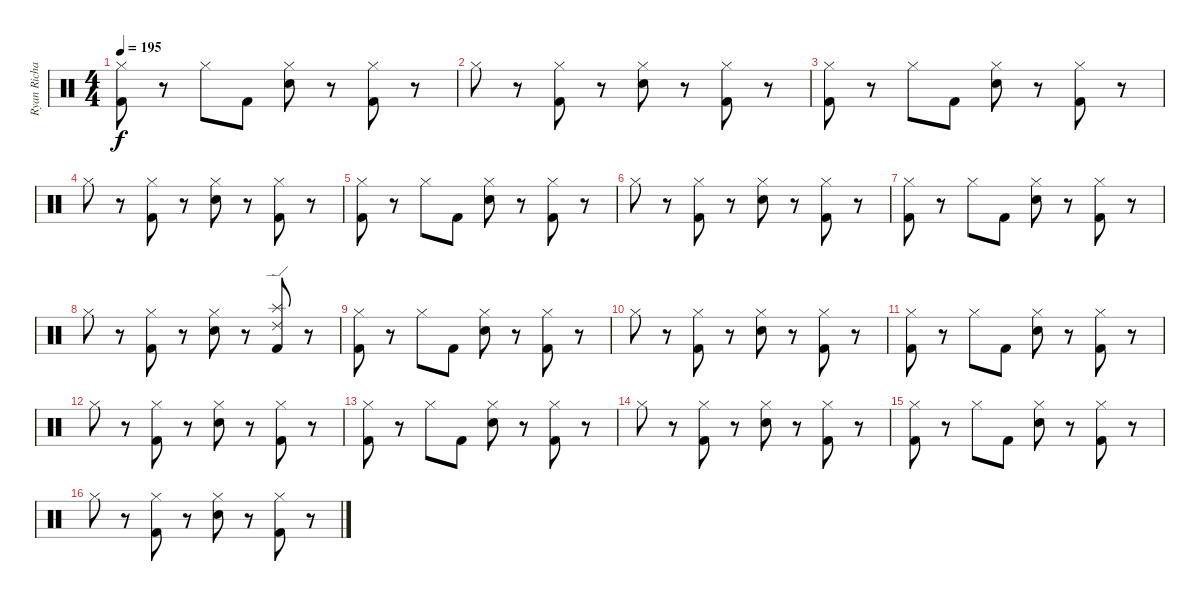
\track ("Ryan Richards" "Ryan Richa") {instrument percussion}
\staff {score}
\articulation defaults
\ts (4 4)
\tempo 195
\clef neutral
\ks c
("Kick (hit) 2" "Hi-Hat (closed)").8{dy f} r.8 "Hi-Hat (closed)".8 "Kick (hit) 2".8 ("Hi-Hat (closed)" "Snare (hit) 2").8 r.8 ("Kick (hit) 2" "Hi-Hat (closed)").8 r.8 |
"Hi-Hat (closed)".8 r.8 ("Kick (hit) 2" "Hi-Hat (closed)").8 r.8 ("Hi-Hat (closed)" "Snare (hit) 2").8 r.8 ("Kick (hit) 2" "Hi-Hat (closed)").8 r.8 |
("Kick (hit) 2" "Hi-Hat (closed)").8 r.8 "Hi-Hat (closed)".8 "Kick (hit) 2".8 ("Hi-Hat (closed)" "Snare (hit) 2").8 r.8 ("Kick (hit) 2" "Hi-Hat (closed)").8 r.8 |
"Hi-Hat (closed)".8 r.8 ("Kick (hit) 2" "Hi-Hat (closed)").8 r.8 ("Hi-Hat (closed)" "Snare (hit) 2").8 r.8 ("Kick (hit) 2" "Hi-Hat (closed)").8 r.8 |
("Kick (hit) 2" "Hi-Hat (closed)").8 r.8 "Hi-Hat (closed)".8 "Kick (hit) 2".8 ("Hi-Hat (closed)" "Snare (hit) 2").8 r.8 ("Kick (hit) 2" "Hi-Hat (closed)").8 r.8 |
"Hi-Hat (closed)".8 r.8 ("Kick (hit) 2" "Hi-Hat (closed)").8 r.8 ("Hi-Hat (closed)" "Snare (hit) 2").8 r.8 ("Kick (hit) 2" "Hi-Hat (closed)").8 r.8 |
("Kick (hit) 2" "Hi-Hat (closed)").8 r.8 "Hi-Hat (closed)".8 "Kick (hit) 2".8 ("Hi-Hat (closed)" "Snare (hit) 2").8 r.8 ("Kick (hit) 2" "Hi-Hat (closed)").8 r.8 |
"Hi-Hat (closed)".8 r.8 ("Kick (hit) 2" "Hi-Hat (closed)").8 r.8 ("Hi-Hat (closed)" "Snare (hit) 2").8 r.8 ("Kick (hit) 2" "Splash (hit)" "Ride (edge) 2").8 r.8 |
("Kick (hit) 2" "Hi-Hat (closed)").8 r.8 "Hi-Hat (closed)".8 "Kick (hit) 2".8 ("Hi-Hat (closed)" "Snare (hit) 2").8 r.8 ("Kick (hit) 2" "Hi-Hat (closed)").8 r.8 |
"Hi-Hat (closed)".8 r.8 ("Kick (hit) 2" "Hi-Hat (closed)").8 r.8 ("Hi-Hat (closed)" "Snare (hit) 2").8 r.8 ("Kick (hit) 2" "Hi-Hat (closed)").8 r.8 |
("Kick (hit) 2" "Hi-Hat (closed)").8 r.8 "Hi-Hat (closed)".8 "Kick (hit) 2".8 ("Hi-Hat (closed)" "Snare (hit) 2").8 r.8 ("Kick (hit) 2" "Hi-Hat (closed)").8 r.8 |
"Hi-Hat (closed)".8 r.8 ("Kick (hit) 2" "Hi-Hat (closed)").8 r.8 ("Hi-Hat (closed)" "Snare (hit) 2").8 r.8 ("Kick (hit) 2" "Hi-Hat (closed)").8 r.8 |
("Kick (hit) 2" "Hi-Hat (closed)").8 r.8 "Hi-Hat (closed)".8 "Kick (hit) 2".8 ("Hi-Hat (closed)" "Snare (hit) 2").8 r.8 ("Kick (hit) 2" "Hi-Hat (closed)").8 r.8 |
"Hi-Hat (closed)".8 r.8 ("Kick (hit) 2" "Hi-Hat (closed)").8 r.8 ("Hi-Hat (closed)" "Snare (hit) 2").8 r.8 ("Kick (hit) 2" "Hi-Hat (closed)").8 r.8 |
("Kick (hit) 2" "Hi-Hat (closed)").8 r.8 "Hi-Hat (closed)".8 "Kick (hit) 2".8 ("Hi-Hat (closed)" "Snare (hit) 2").8 r.8 ("Kick (hit) 2" "Hi-Hat (closed)").8 r.8 |
"Hi-Hat (closed)".8 r.8 ("Kick (hit) 2" "Hi-Hat (closed)").8 r.8 ("Hi-Hat (closed)" "Snare (hit) 2").8 r.8 ("Kick (hit) 2" "Hi-Hat (closed)").8 r.8
